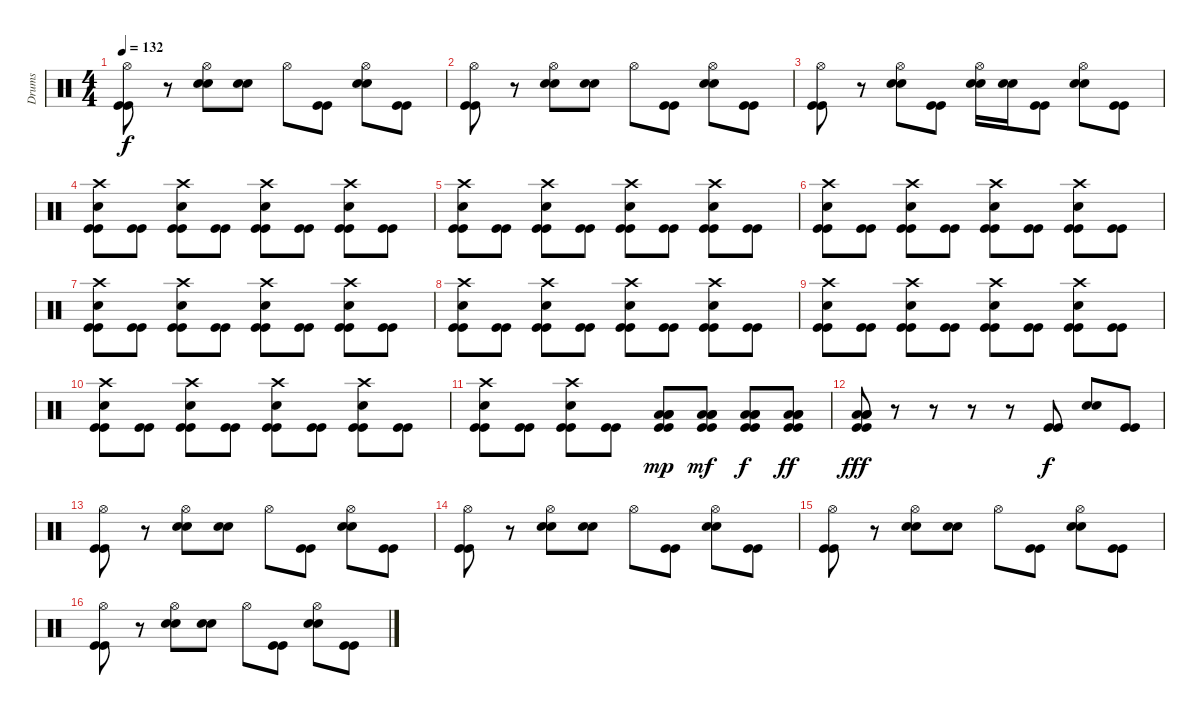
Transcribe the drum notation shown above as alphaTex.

\track ("Drums" "Drums") {instrument percussion}
\staff {score}
\articulation defaults
\ts (4 4)
\tempo 132
\clef neutral
\ks c
("Hi-Hat (open)" "Kick (hit)" "Kick (hit)").8{dy f} r.8 ("Hi-Hat (open)" "Electric Snare (hit)" "Electric Snare (hit)").8 ("Electric Snare (hit)" "Electric Snare (hit)").8 "Hi-Hat (open)".8 ("Kick (hit)" "Kick (hit)").8 ("Hi-Hat (open)" "Electric Snare (hit)" "Electric Snare (hit)").8 ("Kick (hit)" "Kick (hit)").8 |
("Hi-Hat (open)" "Kick (hit)" "Kick (hit)").8 r.8 ("Hi-Hat (open)" "Electric Snare (hit)" "Electric Snare (hit)").8 ("Electric Snare (hit)" "Electric Snare (hit)").8 "Hi-Hat (open)".8 ("Kick (hit)" "Kick (hit)").8 ("Hi-Hat (open)" "Electric Snare (hit)" "Electric Snare (hit)").8 ("Kick (hit)" "Kick (hit)").8 |
("Hi-Hat (open)" "Kick (hit)" "Kick (hit)").8 r.8 ("Hi-Hat (open)" "Electric Snare (hit)" "Electric Snare (hit)").8 ("Kick (hit)" "Kick (hit)").8 ("Hi-Hat (open)" "Electric Snare (hit)" "Electric Snare (hit)").16 ("Electric Snare (hit)" "Electric Snare (hit)").16 ("Kick (hit)" "Kick (hit)").8 ("Hi-Hat (open)" "Electric Snare (hit)" "Electric Snare (hit)").8 ("Kick (hit)" "Kick (hit)").8 |
("Crash high (hit)" "Electric Snare (hit)" "Kick (hit)" "Kick (hit)").8 ("Kick (hit)" "Kick (hit)").8 ("Crash high (hit)" "Electric Snare (hit)" "Kick (hit)" "Kick (hit)").8 ("Kick (hit)" "Kick (hit)").8 ("Crash high (hit)" "Electric Snare (hit)" "Kick (hit)" "Kick (hit)").8 ("Kick (hit)" "Kick (hit)").8 ("Crash high (hit)" "Electric Snare (hit)" "Kick (hit)" "Kick (hit)").8 ("Kick (hit)" "Kick (hit)").8 |
("Crash high (hit)" "Electric Snare (hit)" "Kick (hit)" "Kick (hit)").8 ("Kick (hit)" "Kick (hit)").8 ("Crash high (hit)" "Electric Snare (hit)" "Kick (hit)" "Kick (hit)").8 ("Kick (hit)" "Kick (hit)").8 ("Crash high (hit)" "Electric Snare (hit)" "Kick (hit)" "Kick (hit)").8 ("Kick (hit)" "Kick (hit)").8 ("Crash high (hit)" "Electric Snare (hit)" "Kick (hit)" "Kick (hit)").8 ("Kick (hit)" "Kick (hit)").8 |
("Crash high (hit)" "Electric Snare (hit)" "Kick (hit)" "Kick (hit)").8 ("Kick (hit)" "Kick (hit)").8 ("Crash high (hit)" "Electric Snare (hit)" "Kick (hit)" "Kick (hit)").8 ("Kick (hit)" "Kick (hit)").8 ("Crash high (hit)" "Electric Snare (hit)" "Kick (hit)" "Kick (hit)").8 ("Kick (hit)" "Kick (hit)").8 ("Crash high (hit)" "Electric Snare (hit)" "Kick (hit)" "Kick (hit)").8 ("Kick (hit)" "Kick (hit)").8 |
("Crash high (hit)" "Electric Snare (hit)" "Kick (hit)" "Kick (hit)").8 ("Kick (hit)" "Kick (hit)").8 ("Crash high (hit)" "Electric Snare (hit)" "Kick (hit)" "Kick (hit)").8 ("Kick (hit)" "Kick (hit)").8 ("Crash high (hit)" "Electric Snare (hit)" "Kick (hit)" "Kick (hit)").8 ("Kick (hit)" "Kick (hit)").8 ("Crash high (hit)" "Electric Snare (hit)" "Kick (hit)" "Kick (hit)").8 ("Kick (hit)" "Kick (hit)").8 |
("Crash high (hit)" "Electric Snare (hit)" "Kick (hit)" "Kick (hit)").8 ("Kick (hit)" "Kick (hit)").8 ("Crash high (hit)" "Electric Snare (hit)" "Kick (hit)" "Kick (hit)").8 ("Kick (hit)" "Kick (hit)").8 ("Crash high (hit)" "Electric Snare (hit)" "Kick (hit)" "Kick (hit)").8 ("Kick (hit)" "Kick (hit)").8 ("Crash high (hit)" "Electric Snare (hit)" "Kick (hit)" "Kick (hit)").8 ("Kick (hit)" "Kick (hit)").8 |
("Crash high (hit)" "Electric Snare (hit)" "Kick (hit)" "Kick (hit)").8 ("Kick (hit)" "Kick (hit)").8 ("Crash high (hit)" "Electric Snare (hit)" "Kick (hit)" "Kick (hit)").8 ("Kick (hit)" "Kick (hit)").8 ("Crash high (hit)" "Electric Snare (hit)" "Kick (hit)" "Kick (hit)").8 ("Kick (hit)" "Kick (hit)").8 ("Crash high (hit)" "Electric Snare (hit)" "Kick (hit)" "Kick (hit)").8 ("Kick (hit)" "Kick (hit)").8 |
("Crash high (hit)" "Electric Snare (hit)" "Kick (hit)" "Kick (hit)").8 ("Kick (hit)" "Kick (hit)").8 ("Crash high (hit)" "Electric Snare (hit)" "Kick (hit)" "Kick (hit)").8 ("Kick (hit)" "Kick (hit)").8 ("Crash high (hit)" "Electric Snare (hit)" "Kick (hit)" "Kick (hit)").8 ("Kick (hit)" "Kick (hit)").8 ("Crash high (hit)" "Electric Snare (hit)" "Kick (hit)" "Kick (hit)").8 ("Kick (hit)" "Kick (hit)").8 |
("Crash high (hit)" "Electric Snare (hit)" "Kick (hit)" "Kick (hit)").8 ("Kick (hit)" "Kick (hit)").8 ("Crash high (hit)" "Electric Snare (hit)" "Kick (hit)" "Kick (hit)").8 ("Kick (hit)" "Kick (hit)").8 ("Low Tom (hit)" "Low Tom (hit)" "Low Tom (hit)" "Kick (hit)" "Kick (hit)").8{dy mp} ("Low Tom (hit)" "Low Tom (hit)" "Low Tom (hit)" "Kick (hit)" "Kick (hit)").8{dy mf} ("Low Tom (hit)" "Low Tom (hit)" "Low Tom (hit)" "Kick (hit)" "Kick (hit)").8{dy f} ("Low Tom (hit)" "Low Tom (hit)" "Low Tom (hit)" "Kick (hit)" "Kick (hit)").8{dy ff} |
("Low Tom (hit)" "Low Tom (hit)" "Low Tom (hit)" "Kick (hit)" "Kick (hit)").8{dy fff} r.8 r.8 r.8 r.8 ("Kick (hit)" "Kick (hit)").8{dy f} ("Electric Snare (hit)" "Electric Snare (hit)").8 ("Kick (hit)" "Kick (hit)").8 |
("Hi-Hat (open)" "Kick (hit)" "Kick (hit)").8 r.8 ("Hi-Hat (open)" "Electric Snare (hit)" "Electric Snare (hit)").8 ("Electric Snare (hit)" "Electric Snare (hit)").8 "Hi-Hat (open)".8 ("Kick (hit)" "Kick (hit)").8 ("Hi-Hat (open)" "Electric Snare (hit)" "Electric Snare (hit)").8 ("Kick (hit)" "Kick (hit)").8 |
("Hi-Hat (open)" "Kick (hit)" "Kick (hit)").8 r.8 ("Hi-Hat (open)" "Electric Snare (hit)" "Electric Snare (hit)").8 ("Electric Snare (hit)" "Electric Snare (hit)").8 "Hi-Hat (open)".8 ("Kick (hit)" "Kick (hit)").8 ("Hi-Hat (open)" "Electric Snare (hit)" "Electric Snare (hit)").8 ("Kick (hit)" "Kick (hit)").8 |
("Hi-Hat (open)" "Kick (hit)" "Kick (hit)").8 r.8 ("Hi-Hat (open)" "Electric Snare (hit)" "Electric Snare (hit)").8 ("Electric Snare (hit)" "Electric Snare (hit)").8 "Hi-Hat (open)".8 ("Kick (hit)" "Kick (hit)").8 ("Hi-Hat (open)" "Electric Snare (hit)" "Electric Snare (hit)").8 ("Kick (hit)" "Kick (hit)").8 |
("Hi-Hat (open)" "Kick (hit)" "Kick (hit)").8 r.8 ("Hi-Hat (open)" "Electric Snare (hit)" "Electric Snare (hit)").8 ("Electric Snare (hit)" "Electric Snare (hit)").8 "Hi-Hat (open)".8 ("Kick (hit)" "Kick (hit)").8 ("Hi-Hat (open)" "Electric Snare (hit)" "Electric Snare (hit)").8 ("Kick (hit)" "Kick (hit)").8
